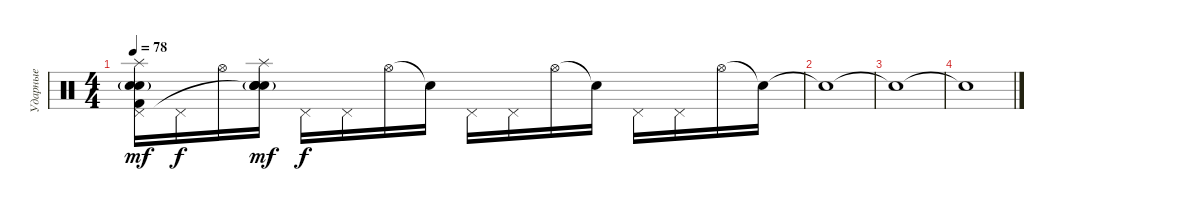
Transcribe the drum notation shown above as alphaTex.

\track ("Ударные" "Ударные") {instrument percussion}
\staff {score}
\articulation defaults
\ts (4 4)
\tempo 78
\clef neutral
\ks c
("Splash (hit)" "Pedal Hi-Hat (hit)" "Snare (hit) 2" "Electric Snare (hit)"{g} "Kick (hit) 2").16{dy mf} "Pedal Hi-Hat (hit)".16{dy f} "Hi-Hat (open)".16 ("Splash (hit)" "Snare (hit)"{t} "Snare (hit) 2" "Electric Snare (hit)"{g} "Electric Snare (hit)").16{dy mf} "Pedal Hi-Hat (hit)".16{dy f} "Pedal Hi-Hat (hit)".16 "Hi-Hat (open)".16 "Snare (hit)"{t}.16 "Pedal Hi-Hat (hit)".16 "Pedal Hi-Hat (hit)".16 "Hi-Hat (open)".16 "Snare (hit)"{t}.16 "Pedal Hi-Hat (hit)".16 "Pedal Hi-Hat (hit)".16 "Hi-Hat (open)".16 "Snare (hit)"{t}.16 |
"Snare (hit)"{t}.1 |
"Snare (hit)"{t}.1 |
"Snare (hit)"{t}.1
